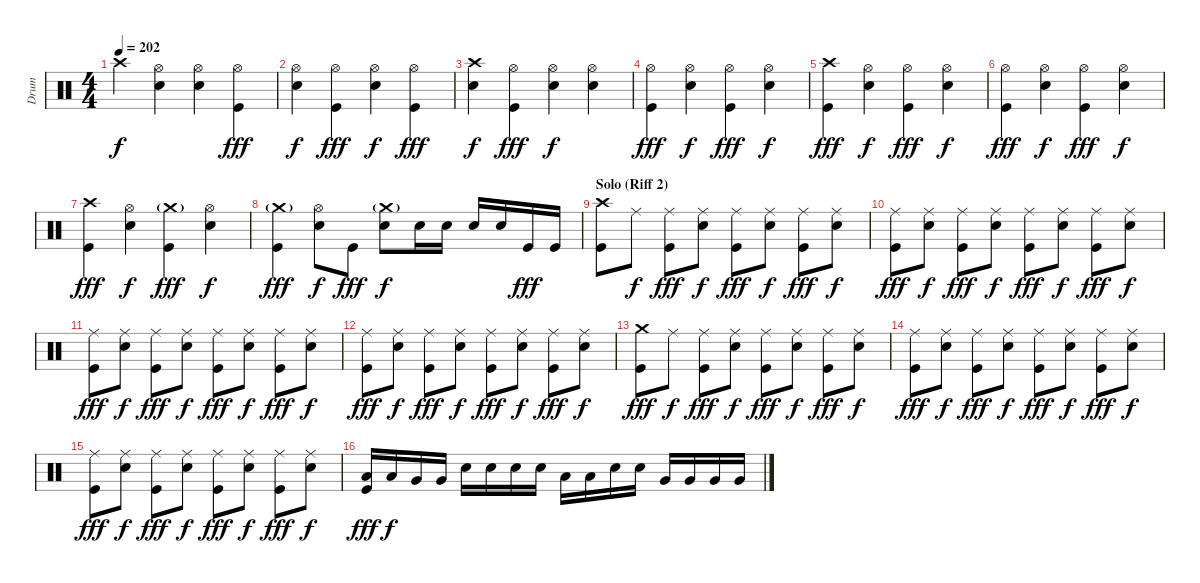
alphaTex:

\track ("Drum" "Drum") {instrument percussion}
\staff {score}
\articulation defaults
\ts (4 4)
\tempo 202
\clef neutral
\ks c "Crash high (hit)".4{dy f}
("Hi-Hat (open)" "Electric Snare (hit)").4 ("Hi-Hat (open)" "Electric Snare (hit)").4 ("Hi-Hat (open)" "Kick (hit)").4{dy fff} |
("Hi-Hat (open)" "Electric Snare (hit)").4{dy f} ("Hi-Hat (open)" "Kick (hit)").4{dy fff} ("Hi-Hat (open)" "Electric Snare (hit)").4{dy f} ("Hi-Hat (open)" "Kick (hit)").4{dy fff} |
("Crash high (hit)" "Electric Snare (hit)").4{dy f} ("Hi-Hat (open)" "Kick (hit)").4{dy fff} ("Hi-Hat (open)" "Electric Snare (hit)").4{dy f} ("Hi-Hat (open)" "Electric Snare (hit)").4 |
("Hi-Hat (open)" "Kick (hit)").4{dy fff} ("Hi-Hat (open)" "Electric Snare (hit)").4{dy f} ("Hi-Hat (open)" "Kick (hit)").4{dy fff} ("Hi-Hat (open)" "Electric Snare (hit)").4{dy f} |
("Crash high (hit)" "Kick (hit)").4{dy fff} ("Hi-Hat (open)" "Electric Snare (hit)").4{dy f} ("Hi-Hat (open)" "Kick (hit)").4{dy fff} ("Hi-Hat (open)" "Electric Snare (hit)").4{dy f} |
("Hi-Hat (open)" "Kick (hit)").4{dy fff} ("Hi-Hat (open)" "Electric Snare (hit)").4{dy f} ("Hi-Hat (open)" "Kick (hit)").4{dy fff} ("Hi-Hat (open)" "Electric Snare (hit)").4{dy f} |
("Crash high (hit)" "Kick (hit)").4{dy fff} ("Hi-Hat (open)" "Electric Snare (hit)").4{dy f} ("Crash medium (hit)"{g} "Kick (hit)").4{dy fff} ("Hi-Hat (open)" "Electric Snare (hit)").4{dy f} |
("Crash medium (hit)"{g} "Kick (hit)").4{dy fff} ("Hi-Hat (open)" "Electric Snare (hit)").8{dy f} "Kick (hit)".8{dy fff} ("Crash medium (hit)"{g} "Electric Snare (hit)").8{dy f} "Electric Snare (hit)".16 "Electric Snare (hit)".16 "Electric Snare (hit)".16 "Electric Snare (hit)".16 "Kick (hit)".16{dy fff} "Kick (hit)".16 |
\section ("" "Solo (Riff 2)")
("Crash high (hit)" "Kick (hit)").8 "Ride (middle)".8{dy f} ("Ride (middle)" "Kick (hit)").8{dy fff} ("Ride (middle)" "Electric Snare (hit)").8{dy f} ("Ride (middle)" "Kick (hit)").8{dy fff} ("Ride (middle)" "Electric Snare (hit)").8{dy f} ("Ride (middle)" "Kick (hit)").8{dy fff} ("Ride (middle)" "Electric Snare (hit)").8{dy f} |
("Ride (middle)" "Kick (hit)").8{dy fff} ("Ride (middle)" "Electric Snare (hit)").8{dy f} ("Ride (middle)" "Kick (hit)").8{dy fff} ("Ride (middle)" "Electric Snare (hit)").8{dy f} ("Ride (middle)" "Kick (hit)").8{dy fff} ("Ride (middle)" "Electric Snare (hit)").8{dy f} ("Ride (middle)" "Kick (hit)").8{dy fff} ("Ride (middle)" "Electric Snare (hit)").8{dy f} |
("Ride (middle)" "Kick (hit)").8{dy fff} ("Ride (middle)" "Electric Snare (hit)").8{dy f} ("Ride (middle)" "Kick (hit)").8{dy fff} ("Ride (middle)" "Electric Snare (hit)").8{dy f} ("Ride (middle)" "Kick (hit)").8{dy fff} ("Ride (middle)" "Electric Snare (hit)").8{dy f} ("Ride (middle)" "Kick (hit)").8{dy fff} ("Ride (middle)" "Electric Snare (hit)").8{dy f} |
("Ride (middle)" "Kick (hit)").8{dy fff} ("Ride (middle)" "Electric Snare (hit)").8{dy f} ("Ride (middle)" "Kick (hit)").8{dy fff} ("Ride (middle)" "Electric Snare (hit)").8{dy f} ("Ride (middle)" "Kick (hit)").8{dy fff} ("Ride (middle)" "Electric Snare (hit)").8{dy f} ("Ride (middle)" "Kick (hit)").8{dy fff} ("Ride (middle)" "Electric Snare (hit)").8{dy f} |
("Crash medium (hit)" "Kick (hit)").8{dy fff} "Ride (middle)".8{dy f} ("Ride (middle)" "Kick (hit)").8{dy fff} ("Ride (middle)" "Electric Snare (hit)").8{dy f} ("Ride (middle)" "Kick (hit)").8{dy fff} ("Ride (middle)" "Electric Snare (hit)").8{dy f} ("Ride (middle)" "Kick (hit)").8{dy fff} ("Ride (middle)" "Electric Snare (hit)").8{dy f} |
("Ride (middle)" "Kick (hit)").8{dy fff} ("Ride (middle)" "Electric Snare (hit)").8{dy f} ("Ride (middle)" "Kick (hit)").8{dy fff} ("Ride (middle)" "Electric Snare (hit)").8{dy f} ("Ride (middle)" "Kick (hit)").8{dy fff} ("Ride (middle)" "Electric Snare (hit)").8{dy f} ("Ride (middle)" "Kick (hit)").8{dy fff} ("Ride (middle)" "Electric Snare (hit)").8{dy f} |
("Ride (middle)" "Kick (hit)").8{dy fff} ("Ride (middle)" "Electric Snare (hit)").8{dy f} ("Ride (middle)" "Kick (hit)").8{dy fff} ("Ride (middle)" "Electric Snare (hit)").8{dy f} ("Ride (middle)" "Kick (hit)").8{dy fff} ("Ride (middle)" "Electric Snare (hit)").8{dy f} ("Ride (middle)" "Kick (hit)").8{dy fff} ("Ride (middle)" "Electric Snare (hit)").8{dy f} |
("Low Tom (hit)" "Kick (hit)").16{dy fff} "Low Tom (hit)".16{dy f} "Very Low Tom (hit)".16 "Very Low Tom (hit)".16 "Electric Snare (hit)".16 "Electric Snare (hit)".16 "Electric Snare (hit)".16 "Electric Snare (hit)".16 "Low Tom (hit)".16 "Low Tom (hit)".16 "Electric Snare (hit)".16 "Electric Snare (hit)".16 "Very Low Tom (hit)".16 "Very Low Tom (hit)".16 "Very Low Tom (hit)".16 "Very Low Tom (hit)".16
